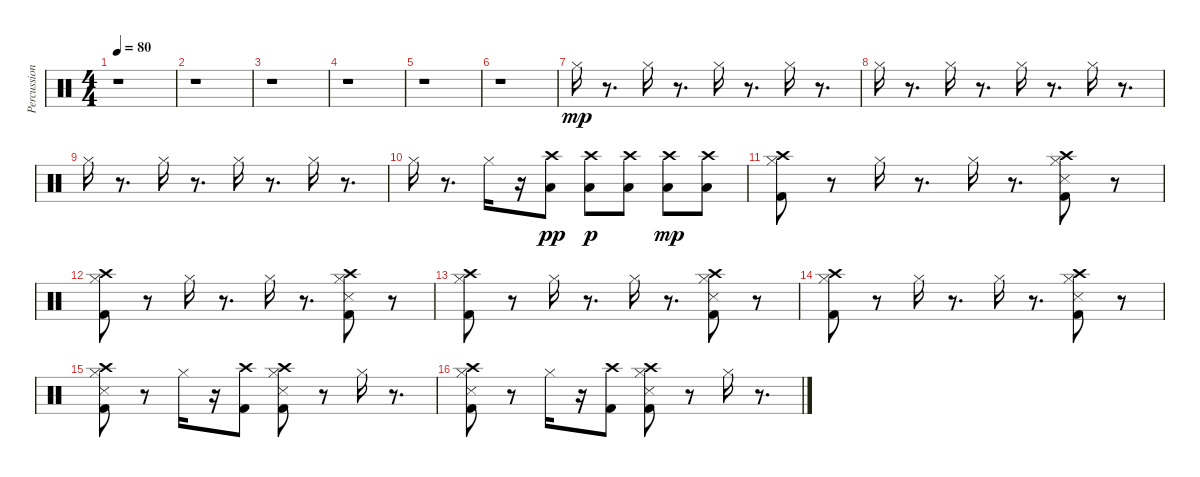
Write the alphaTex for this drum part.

\track ("Percussions" "Percussion") {instrument percussion}
\staff {score}
\articulation defaults
\ts (4 4)
\tempo 80
\clef neutral
\ks c
r.1{dy mp} |
r.1 |
r.1 |
r.1 |
r.1 |
r.1 |
"Hi-Hat (closed)".16 r.8{d} "Hi-Hat (closed)".16 r.8{d} "Hi-Hat (closed)".16 r.8{d} "Hi-Hat (closed)".16 r.8{d} |
"Hi-Hat (closed)".16 r.8{d} "Hi-Hat (closed)".16 r.8{d} "Hi-Hat (closed)".16 r.8{d} "Hi-Hat (closed)".16 r.8{d} |
"Hi-Hat (closed)".16 r.8{d} "Hi-Hat (closed)".16 r.8{d} "Hi-Hat (closed)".16 r.8{d} "Hi-Hat (closed)".16 r.8{d} |
"Hi-Hat (closed)".16 r.8{d} "Hi-Hat (closed)".16 r.16 ("Crash high (hit)" "Low Tom (hit)").8{dy pp} ("Crash high (hit)" "Low Tom (hit)").8{dy p} ("Crash high (hit)" "Low Tom (hit)").8 ("Crash high (hit)" "Low Tom (hit)").8{dy mp} ("Crash high (hit)" "Low Tom (hit)").8 |
("Crash high (hit)" "Kick (hit) 2" "Hi-Hat (closed)").8 r.8 "Hi-Hat (closed)".16 r.8{d} "Hi-Hat (closed)".16 r.8{d} ("Snare (side stick) 3" "Crash high (hit)" "Kick (hit) 2" "Hi-Hat (closed)").8 r.8 |
("Crash high (hit)" "Kick (hit) 2" "Hi-Hat (closed)").8 r.8 "Hi-Hat (closed)".16 r.8{d} "Hi-Hat (closed)".16 r.8{d} ("Snare (side stick) 3" "Crash high (hit)" "Kick (hit) 2" "Hi-Hat (closed)").8 r.8 |
("Crash high (hit)" "Kick (hit) 2" "Hi-Hat (closed)").8 r.8 "Hi-Hat (closed)".16 r.8{d} "Hi-Hat (closed)".16 r.8{d} ("Snare (side stick) 3" "Crash high (hit)" "Kick (hit) 2" "Hi-Hat (closed)").8 r.8 |
("Crash high (hit)" "Kick (hit) 2" "Hi-Hat (closed)").8 r.8 "Hi-Hat (closed)".16 r.8{d} "Hi-Hat (closed)".16 r.8{d} ("Snare (side stick) 3" "Crash high (hit)" "Kick (hit) 2" "Hi-Hat (closed)").8 r.8 |
("Snare (side stick) 3" "Crash high (hit)" "Kick (hit) 2" "Hi-Hat (closed)").8 r.8 "Hi-Hat (closed)".16 r.16 ("Crash high (hit)" "Kick (hit) 2").8 ("Snare (side stick) 3" "Crash high (hit)" "Kick (hit) 2" "Hi-Hat (closed)").8 r.8 "Hi-Hat (closed)".16 r.8{d} |
("Snare (side stick) 3" "Crash high (hit)" "Kick (hit) 2" "Hi-Hat (closed)").8 r.8 "Hi-Hat (closed)".16 r.16 ("Crash high (hit)" "Kick (hit) 2").8 ("Snare (side stick) 3" "Crash high (hit)" "Kick (hit) 2" "Hi-Hat (closed)").8 r.8 "Hi-Hat (closed)".16 r.8{d}
